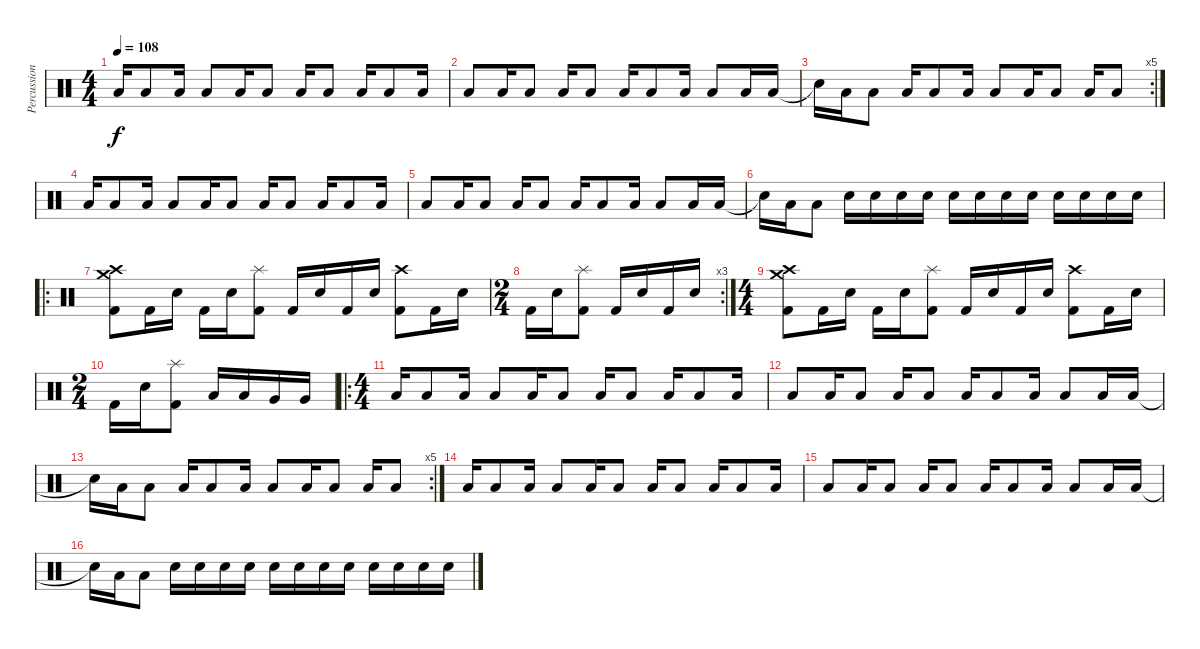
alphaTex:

\track ("Percussion" "Percussion") {instrument percussion}
\staff {score}
\articulation defaults
\ts (4 4)
\tempo 108
\clef neutral
\ks c "Low Floor Tom (hit)".16{dy f} "Low Floor Tom (hit)".8 "Low Floor Tom (hit)".16 "Low Floor Tom (hit)".8 "Low Floor Tom (hit)".16 "Low Floor Tom (hit)".8 "Low Floor Tom (hit)".16 "Low Floor Tom (hit)".8 "Low Floor Tom (hit)".16 "Low Floor Tom (hit)".8 "Low Floor Tom (hit)".16
|
"Low Floor Tom (hit)".8 "Low Floor Tom (hit)".16 "Low Floor Tom (hit)".8 "Low Floor Tom (hit)".16 "Low Floor Tom (hit)".8 "Low Floor Tom (hit)".16 "Low Floor Tom (hit)".8 "Low Floor Tom (hit)".16 "Low Floor Tom (hit)".8 "Low Floor Tom (hit)".16 "Low Floor Tom (hit)".16 |
\rc 5 "Snare (hit)"{t}.16 "Low Floor Tom (hit)".16 "Low Floor Tom (hit)".8 "Low Floor Tom (hit)".16 "Low Floor Tom (hit)".8 "Low Floor Tom (hit)".16 "Low Floor Tom (hit)".8 "Low Floor Tom (hit)".16 "Low Floor Tom (hit)".8 "Low Floor Tom (hit)".16 "Low Floor Tom (hit)".8
|
"Low Floor Tom (hit)".16 "Low Floor Tom (hit)".8 "Low Floor Tom (hit)".16 "Low Floor Tom (hit)".8 "Low Floor Tom (hit)".16 "Low Floor Tom (hit)".8 "Low Floor Tom (hit)".16 "Low Floor Tom (hit)".8 "Low Floor Tom (hit)".16 "Low Floor Tom (hit)".8 "Low Floor Tom (hit)".16 |
"Low Floor Tom (hit)".8 "Low Floor Tom (hit)".16 "Low Floor Tom (hit)".8 "Low Floor Tom (hit)".16 "Low Floor Tom (hit)".8 "Low Floor Tom (hit)".16 "Low Floor Tom (hit)".8 "Low Floor Tom (hit)".16 "Low Floor Tom (hit)".8 "Low Floor Tom (hit)".16 "Low Floor Tom (hit)".16 |
"Snare (hit)"{t}.16 "Low Floor Tom (hit)".16 "Low Floor Tom (hit)".8 "Electric Snare (hit)".16 "Electric Snare (hit)".16 "Electric Snare (hit)".16 "Electric Snare (hit)".16 "Electric Snare (hit)".16 "Electric Snare (hit)".16 "Electric Snare (hit)".16 "Electric Snare (hit)".16 "Electric Snare (hit)".16 "Electric Snare (hit)".16 "Electric Snare (hit)".16 "Electric Snare (hit)".16 |
\ro
("Crash high (hit)" "Crash medium (hit)" "Kick (hit) 2").8 "Kick (hit) 2".16 "Electric Snare (hit)".16 "Kick (hit) 2".16 "Electric Snare (hit)".16 ("Splash (hit)" "Kick (hit) 2").8 "Kick (hit) 2".16 "Electric Snare (hit)".16 "Kick (hit) 2".16 "Electric Snare (hit)".16 ("Crash high (hit)" "Kick (hit) 2").8 "Kick (hit) 2".16 "Electric Snare (hit)".16 |
\rc 3
\ts (2 4)
"Kick (hit) 2".16 "Electric Snare (hit)".16 ("Splash (hit)" "Kick (hit) 2").8 "Kick (hit) 2".16 "Electric Snare (hit)".16 "Kick (hit) 2".16 "Electric Snare (hit)".16 |
\ts (4 4)
("Crash high (hit)" "Crash medium (hit)" "Kick (hit) 2").8 "Kick (hit) 2".16 "Electric Snare (hit)".16 "Kick (hit) 2".16 "Electric Snare (hit)".16 ("Splash (hit)" "Kick (hit) 2").8 "Kick (hit) 2".16 "Electric Snare (hit)".16 "Kick (hit) 2".16 "Electric Snare (hit)".16 ("Crash high (hit)" "Kick (hit) 2").8 "Kick (hit) 2".16 "Electric Snare (hit)".16 |
\ts (2 4)
"Kick (hit) 2".16 "Electric Snare (hit)".16 ("Splash (hit)" "Kick (hit) 2").8 "Low Tom (hit)".16 "Low Tom (hit)".16 "Very Low Tom (hit)".16 "Very Low Tom (hit)".16 |
\ro
\ts (4 4)
"Low Floor Tom (hit)".16 "Low Floor Tom (hit)".8 "Low Floor Tom (hit)".16 "Low Floor Tom (hit)".8 "Low Floor Tom (hit)".16 "Low Floor Tom (hit)".8 "Low Floor Tom (hit)".16 "Low Floor Tom (hit)".8 "Low Floor Tom (hit)".16 "Low Floor Tom (hit)".8 "Low Floor Tom (hit)".16 |
"Low Floor Tom (hit)".8 "Low Floor Tom (hit)".16 "Low Floor Tom (hit)".8 "Low Floor Tom (hit)".16 "Low Floor Tom (hit)".8 "Low Floor Tom (hit)".16 "Low Floor Tom (hit)".8 "Low Floor Tom (hit)".16 "Low Floor Tom (hit)".8 "Low Floor Tom (hit)".16 "Low Floor Tom (hit)".16 |
\rc 5 "Snare (hit)"{t}.16 "Low Floor Tom (hit)".16 "Low Floor Tom (hit)".8 "Low Floor Tom (hit)".16 "Low Floor Tom (hit)".8 "Low Floor Tom (hit)".16 "Low Floor Tom (hit)".8 "Low Floor Tom (hit)".16 "Low Floor Tom (hit)".8 "Low Floor Tom (hit)".16 "Low Floor Tom (hit)".8
|
"Low Floor Tom (hit)".16 "Low Floor Tom (hit)".8 "Low Floor Tom (hit)".16 "Low Floor Tom (hit)".8 "Low Floor Tom (hit)".16 "Low Floor Tom (hit)".8 "Low Floor Tom (hit)".16 "Low Floor Tom (hit)".8 "Low Floor Tom (hit)".16 "Low Floor Tom (hit)".8 "Low Floor Tom (hit)".16 |
"Low Floor Tom (hit)".8 "Low Floor Tom (hit)".16 "Low Floor Tom (hit)".8 "Low Floor Tom (hit)".16 "Low Floor Tom (hit)".8 "Low Floor Tom (hit)".16 "Low Floor Tom (hit)".8 "Low Floor Tom (hit)".16 "Low Floor Tom (hit)".8 "Low Floor Tom (hit)".16 "Low Floor Tom (hit)".16 |
"Snare (hit)"{t}.16 "Low Floor Tom (hit)".16 "Low Floor Tom (hit)".8 "Electric Snare (hit)".16 "Electric Snare (hit)".16 "Electric Snare (hit)".16 "Electric Snare (hit)".16 "Electric Snare (hit)".16 "Electric Snare (hit)".16 "Electric Snare (hit)".16 "Electric Snare (hit)".16 "Electric Snare (hit)".16 "Electric Snare (hit)".16 "Electric Snare (hit)".16 "Electric Snare (hit)".16
